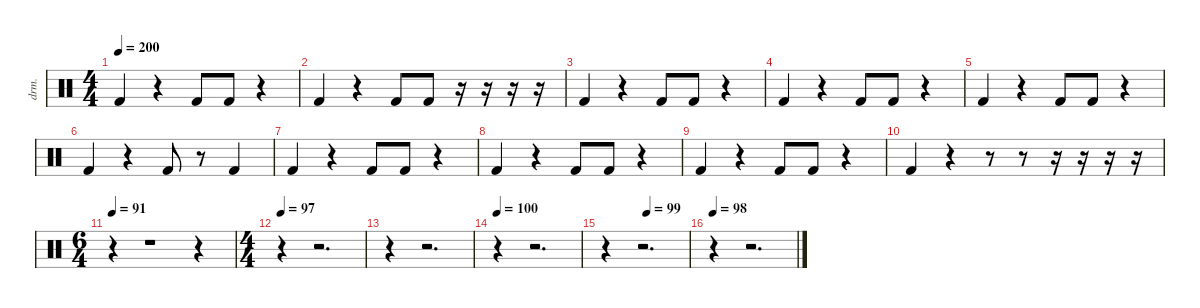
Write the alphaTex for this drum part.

\defaultSystemsLayout 4
\hideDynamics
\bracketExtendMode nobrackets
\track ("Percussion" "drm.") {instrument percussion}
\staff {score}
\articulation defaults
\ts (4 4)
\tempo 200
\clef neutral
\ks c "Kick (hit) 2".4{dy ff}
r.4 "Kick (hit) 2".8 "Kick (hit) 2".8 r.4 |
"Kick (hit) 2".4 r.4 "Kick (hit) 2".8 "Kick (hit) 2".8 r.16 r.16 r.16 r.16 |
"Kick (hit) 2".4 r.4 "Kick (hit) 2".8 "Kick (hit) 2".8 r.4 |
"Kick (hit) 2".4 r.4 "Kick (hit) 2".8 "Kick (hit) 2".8 r.4 |
"Kick (hit) 2".4 r.4 "Kick (hit) 2".8 "Kick (hit) 2".8 r.4 |
"Kick (hit) 2".4 r.4 "Kick (hit) 2".8 r.8 "Kick (hit) 2".4 |
"Kick (hit) 2".4 r.4 "Kick (hit) 2".8 "Kick (hit) 2".8 r.4 |
"Kick (hit) 2".4 r.4 "Kick (hit) 2".8 "Kick (hit) 2".8 r.4 |
"Kick (hit) 2".4 r.4 "Kick (hit) 2".8 "Kick (hit) 2".8 r.4 |
"Kick (hit) 2".4 r.4 r.8 r.8 r.16 r.16 r.16 r.16 |
\ts (6 4)
\beaming (8 6 6)
\tempo 91
r.4 r.1 r.4 |
\ts (4 4)
\beaming (8 2 2 2 2)
\tempo 97
r.4 r.2{d} |
r.4 r.2{d} |
\tempo 100
r.4 r.2{d} |
\tempo (99 0.5)
r.4 r.2{d} |
\tempo 98
r.4 r.2{d}
